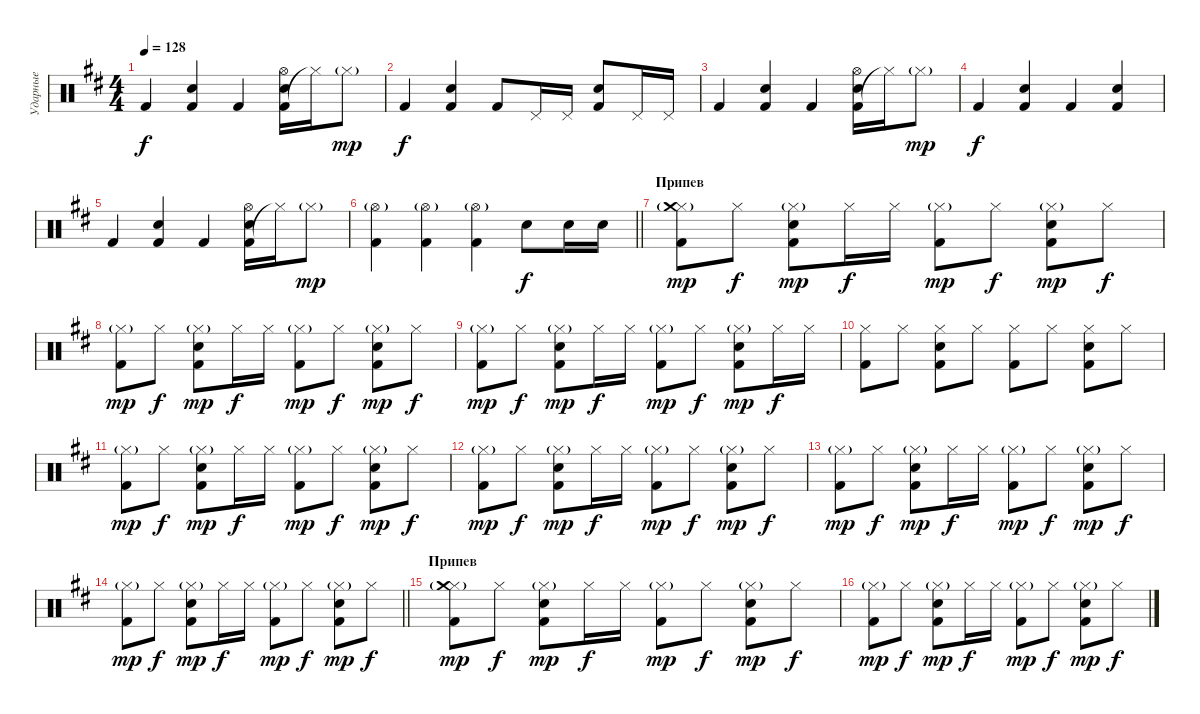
\track ("Ударные" "Ударные") {instrument percussion}
\staff {score}
\articulation defaults
\ts (4 4)
\tempo 128
\clef neutral
\ks bminor "Kick (hit) 2".4{dy f}
("Kick (hit) 2" "Snare (hit) 2").4 "Kick (hit) 2".4 ("Kick (hit) 2" "Snare (hit) 2" "Hi-Hat (open)").16 "Hi-Hat (closed)"{t}.16 "Hi-Hat (closed)"{g}.8{dy mp} |
"Kick (hit) 2".4{dy f} ("Kick (hit) 2" "Snare (hit) 2").4 "Kick (hit) 2".8 "Pedal Hi-Hat (hit)".16 "Pedal Hi-Hat (hit)".16 ("Kick (hit) 2" "Snare (hit) 2").8 "Pedal Hi-Hat (hit)".16 "Pedal Hi-Hat (hit)".16 |
"Kick (hit) 2".4 ("Kick (hit) 2" "Snare (hit) 2").4 "Kick (hit) 2".4 ("Kick (hit) 2" "Snare (hit) 2" "Hi-Hat (open)").16 "Hi-Hat (closed)"{t}.16 "Hi-Hat (closed)"{g}.8{dy mp} |
"Kick (hit) 2".4{dy f} ("Kick (hit) 2" "Snare (hit) 2").4 "Kick (hit) 2".4 ("Kick (hit) 2" "Snare (hit) 2").4 |
"Kick (hit) 2".4 ("Kick (hit) 2" "Snare (hit) 2").4 "Kick (hit) 2".4 ("Kick (hit) 2" "Snare (hit) 2" "Hi-Hat (open)").16 "Hi-Hat (closed)"{t}.16 "Hi-Hat (closed)"{g}.8{dy mp} |
\barLineRight lightlight
("Kick (hit) 2" "Hi-Hat (open)"{g}).4 ("Kick (hit) 2" "Hi-Hat (open)"{g}).4 ("Kick (hit) 2" "Hi-Hat (open)"{g}).4 "Snare (hit) 2".8{dy f} "Snare (hit) 2".16 "Snare (hit) 2".16 |
\section ("" "Припев")
("Hi-Hat (closed)"{g} "Crash medium (hit)" "Kick (hit) 2").8{dy mp} "Hi-Hat (closed)".8{dy f} ("Hi-Hat (closed)"{g} "Kick (hit) 2" "Snare (hit) 2").8{dy mp} "Hi-Hat (closed)".16{dy f} "Hi-Hat (closed)".16 ("Hi-Hat (closed)"{g} "Kick (hit) 2").8{dy mp} "Hi-Hat (closed)".8{dy f} ("Hi-Hat (closed)"{g} "Kick (hit) 2" "Snare (hit) 2").8{dy mp} "Hi-Hat (closed)".8{dy f} |
("Hi-Hat (closed)"{g} "Kick (hit) 2").8{dy mp} "Hi-Hat (closed)".8{dy f} ("Hi-Hat (closed)"{g} "Kick (hit) 2" "Snare (hit) 2").8{dy mp} "Hi-Hat (closed)".16{dy f} "Hi-Hat (closed)".16 ("Hi-Hat (closed)"{g} "Kick (hit) 2").8{dy mp} "Hi-Hat (closed)".8{dy f} ("Hi-Hat (closed)"{g} "Kick (hit) 2" "Snare (hit) 2").8{dy mp} "Hi-Hat (closed)".8{dy f} |
("Hi-Hat (closed)"{g} "Kick (hit) 2").8{dy mp} "Hi-Hat (closed)".8{dy f} ("Hi-Hat (closed)"{g} "Kick (hit) 2" "Snare (hit) 2").8{dy mp} "Hi-Hat (closed)".16{dy f} "Hi-Hat (closed)".16 ("Hi-Hat (closed)"{g} "Kick (hit) 2").8{dy mp} "Hi-Hat (closed)".8{dy f} ("Hi-Hat (closed)"{g} "Kick (hit) 2" "Snare (hit) 2").8{dy mp} "Hi-Hat (closed)".16{dy f} "Hi-Hat (closed)".16 |
("Hi-Hat (closed)" "Kick (hit) 2").8 "Hi-Hat (closed)".8 ("Hi-Hat (closed)" "Kick (hit) 2" "Snare (hit) 2").8 "Hi-Hat (closed)".8 ("Hi-Hat (closed)" "Kick (hit) 2").8 "Hi-Hat (closed)".8 ("Hi-Hat (closed)" "Kick (hit) 2" "Snare (hit) 2").8 "Hi-Hat (closed)".8 |
("Hi-Hat (closed)"{g} "Kick (hit) 2").8{dy mp} "Hi-Hat (closed)".8{dy f} ("Hi-Hat (closed)"{g} "Kick (hit) 2" "Snare (hit) 2").8{dy mp} "Hi-Hat (closed)".16{dy f} "Hi-Hat (closed)".16 ("Hi-Hat (closed)"{g} "Kick (hit) 2").8{dy mp} "Hi-Hat (closed)".8{dy f} ("Hi-Hat (closed)"{g} "Kick (hit) 2" "Snare (hit) 2").8{dy mp} "Hi-Hat (closed)".8{dy f} |
("Hi-Hat (closed)"{g} "Kick (hit) 2").8{dy mp} "Hi-Hat (closed)".8{dy f} ("Hi-Hat (closed)"{g} "Kick (hit) 2" "Snare (hit) 2").8{dy mp} "Hi-Hat (closed)".16{dy f} "Hi-Hat (closed)".16 ("Hi-Hat (closed)"{g} "Kick (hit) 2").8{dy mp} "Hi-Hat (closed)".8{dy f} ("Hi-Hat (closed)"{g} "Kick (hit) 2" "Snare (hit) 2").8{dy mp} "Hi-Hat (closed)".8{dy f} |
("Hi-Hat (closed)"{g} "Kick (hit) 2").8{dy mp} "Hi-Hat (closed)".8{dy f} ("Hi-Hat (closed)"{g} "Kick (hit) 2" "Snare (hit) 2").8{dy mp} "Hi-Hat (closed)".16{dy f} "Hi-Hat (closed)".16 ("Hi-Hat (closed)"{g} "Kick (hit) 2").8{dy mp} "Hi-Hat (closed)".8{dy f} ("Hi-Hat (closed)"{g} "Kick (hit) 2" "Snare (hit) 2").8{dy mp} "Hi-Hat (closed)".8{dy f} |
\barLineRight lightlight
("Hi-Hat (closed)"{g} "Kick (hit) 2").8{dy mp} "Hi-Hat (closed)".8{dy f} ("Hi-Hat (closed)"{g} "Kick (hit) 2" "Snare (hit) 2").8{dy mp} "Hi-Hat (closed)".16{dy f} "Hi-Hat (closed)".16 ("Hi-Hat (closed)"{g} "Kick (hit) 2").8{dy mp} "Hi-Hat (closed)".8{dy f} ("Hi-Hat (closed)"{g} "Kick (hit) 2" "Snare (hit) 2").8{dy mp} "Hi-Hat (closed)".8{dy f} |
\section ("" "Припев")
("Hi-Hat (closed)"{g} "Crash medium (hit)" "Kick (hit) 2").8{dy mp} "Hi-Hat (closed)".8{dy f} ("Hi-Hat (closed)"{g} "Kick (hit) 2" "Snare (hit) 2").8{dy mp} "Hi-Hat (closed)".16{dy f} "Hi-Hat (closed)".16 ("Hi-Hat (closed)"{g} "Kick (hit) 2").8{dy mp} "Hi-Hat (closed)".8{dy f} ("Hi-Hat (closed)"{g} "Kick (hit) 2" "Snare (hit) 2").8{dy mp} "Hi-Hat (closed)".8{dy f} |
("Hi-Hat (closed)"{g} "Kick (hit) 2").8{dy mp} "Hi-Hat (closed)".8{dy f} ("Hi-Hat (closed)"{g} "Kick (hit) 2" "Snare (hit) 2").8{dy mp} "Hi-Hat (closed)".16{dy f} "Hi-Hat (closed)".16 ("Hi-Hat (closed)"{g} "Kick (hit) 2").8{dy mp} "Hi-Hat (closed)".8{dy f} ("Hi-Hat (closed)"{g} "Kick (hit) 2" "Snare (hit) 2").8{dy mp} "Hi-Hat (closed)".8{dy f}
